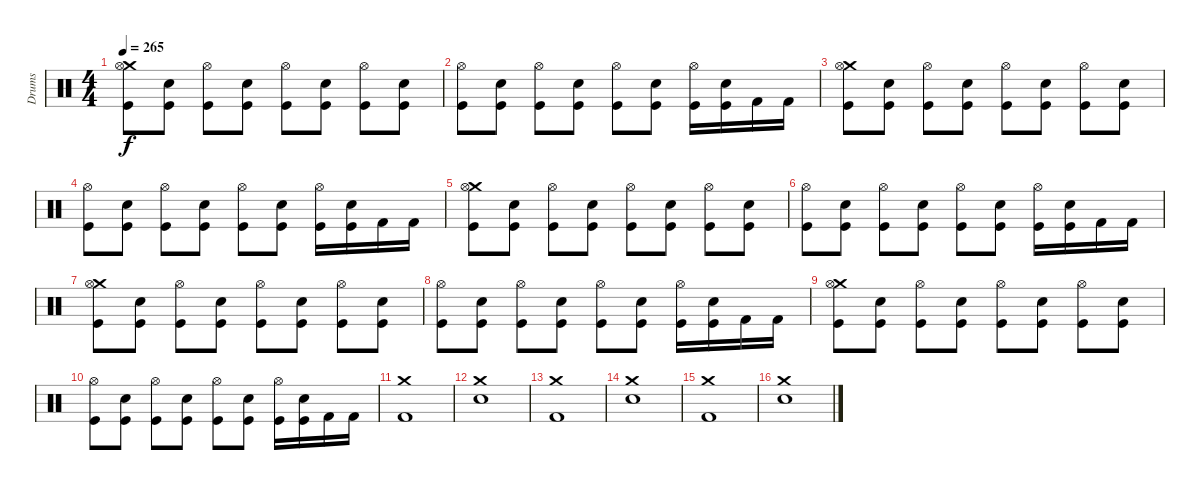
\track ("Drums" "Drums") {instrument percussion}
\staff {score}
\articulation defaults
\ts (4 4)
\tempo 265
\clef neutral
\ks c
("Crash medium (hit)" "Hi-Hat (open)" "Kick (hit)").8{dy f} ("Electric Snare (hit)" "Kick (hit)").8 ("Hi-Hat (open)" "Kick (hit)").8 ("Electric Snare (hit)" "Kick (hit)").8 ("Hi-Hat (open)" "Kick (hit)").8 ("Electric Snare (hit)" "Kick (hit)").8 ("Hi-Hat (open)" "Kick (hit)").8 ("Electric Snare (hit)" "Kick (hit)").8 |
("Hi-Hat (open)" "Kick (hit)").8 ("Electric Snare (hit)" "Kick (hit)").8 ("Hi-Hat (open)" "Kick (hit)").8 ("Electric Snare (hit)" "Kick (hit)").8 ("Hi-Hat (open)" "Kick (hit)").8 ("Electric Snare (hit)" "Kick (hit)").8 ("Hi-Hat (open)" "Kick (hit)").16 ("Electric Snare (hit)" "Kick (hit)").16 "Kick (hit) 2".16 "Kick (hit) 2".16 |
("Crash medium (hit)" "Hi-Hat (open)" "Kick (hit)").8 ("Electric Snare (hit)" "Kick (hit)").8 ("Hi-Hat (open)" "Kick (hit)").8 ("Electric Snare (hit)" "Kick (hit)").8 ("Hi-Hat (open)" "Kick (hit)").8 ("Electric Snare (hit)" "Kick (hit)").8 ("Hi-Hat (open)" "Kick (hit)").8 ("Electric Snare (hit)" "Kick (hit)").8 |
("Hi-Hat (open)" "Kick (hit)").8 ("Electric Snare (hit)" "Kick (hit)").8 ("Hi-Hat (open)" "Kick (hit)").8 ("Electric Snare (hit)" "Kick (hit)").8 ("Hi-Hat (open)" "Kick (hit)").8 ("Electric Snare (hit)" "Kick (hit)").8 ("Hi-Hat (open)" "Kick (hit)").16 ("Electric Snare (hit)" "Kick (hit)").16 "Kick (hit) 2".16 "Kick (hit) 2".16 |
("Crash medium (hit)" "Hi-Hat (open)" "Kick (hit)").8 ("Electric Snare (hit)" "Kick (hit)").8 ("Hi-Hat (open)" "Kick (hit)").8 ("Electric Snare (hit)" "Kick (hit)").8 ("Hi-Hat (open)" "Kick (hit)").8 ("Electric Snare (hit)" "Kick (hit)").8 ("Hi-Hat (open)" "Kick (hit)").8 ("Electric Snare (hit)" "Kick (hit)").8 |
("Hi-Hat (open)" "Kick (hit)").8 ("Electric Snare (hit)" "Kick (hit)").8 ("Hi-Hat (open)" "Kick (hit)").8 ("Electric Snare (hit)" "Kick (hit)").8 ("Hi-Hat (open)" "Kick (hit)").8 ("Electric Snare (hit)" "Kick (hit)").8 ("Hi-Hat (open)" "Kick (hit)").16 ("Electric Snare (hit)" "Kick (hit)").16 "Kick (hit) 2".16 "Kick (hit) 2".16 |
("Crash medium (hit)" "Hi-Hat (open)" "Kick (hit)").8 ("Electric Snare (hit)" "Kick (hit)").8 ("Hi-Hat (open)" "Kick (hit)").8 ("Electric Snare (hit)" "Kick (hit)").8 ("Hi-Hat (open)" "Kick (hit)").8 ("Electric Snare (hit)" "Kick (hit)").8 ("Hi-Hat (open)" "Kick (hit)").8 ("Electric Snare (hit)" "Kick (hit)").8 |
("Hi-Hat (open)" "Kick (hit)").8 ("Electric Snare (hit)" "Kick (hit)").8 ("Hi-Hat (open)" "Kick (hit)").8 ("Electric Snare (hit)" "Kick (hit)").8 ("Hi-Hat (open)" "Kick (hit)").8 ("Electric Snare (hit)" "Kick (hit)").8 ("Hi-Hat (open)" "Kick (hit)").16 ("Electric Snare (hit)" "Kick (hit)").16 "Kick (hit) 2".16 "Kick (hit) 2".16 |
("Crash medium (hit)" "Hi-Hat (open)" "Kick (hit)").8 ("Electric Snare (hit)" "Kick (hit)").8 ("Hi-Hat (open)" "Kick (hit)").8 ("Electric Snare (hit)" "Kick (hit)").8 ("Hi-Hat (open)" "Kick (hit)").8 ("Electric Snare (hit)" "Kick (hit)").8 ("Hi-Hat (open)" "Kick (hit)").8 ("Electric Snare (hit)" "Kick (hit)").8 |
("Hi-Hat (open)" "Kick (hit)").8 ("Electric Snare (hit)" "Kick (hit)").8 ("Hi-Hat (open)" "Kick (hit)").8 ("Electric Snare (hit)" "Kick (hit)").8 ("Hi-Hat (open)" "Kick (hit)").8 ("Electric Snare (hit)" "Kick (hit)").8 ("Hi-Hat (open)" "Kick (hit)").16 ("Electric Snare (hit)" "Kick (hit)").16 "Kick (hit) 2".16 "Kick (hit) 2".16 |
("Crash medium (hit)" "Kick (hit) 2").1 |
("Crash medium (hit)" "Electric Snare (hit)").1 |
("Crash medium (hit)" "Kick (hit) 2").1 |
("Crash medium (hit)" "Electric Snare (hit)").1 |
("Crash medium (hit)" "Kick (hit) 2").1 |
("Crash medium (hit)" "Electric Snare (hit)").1
